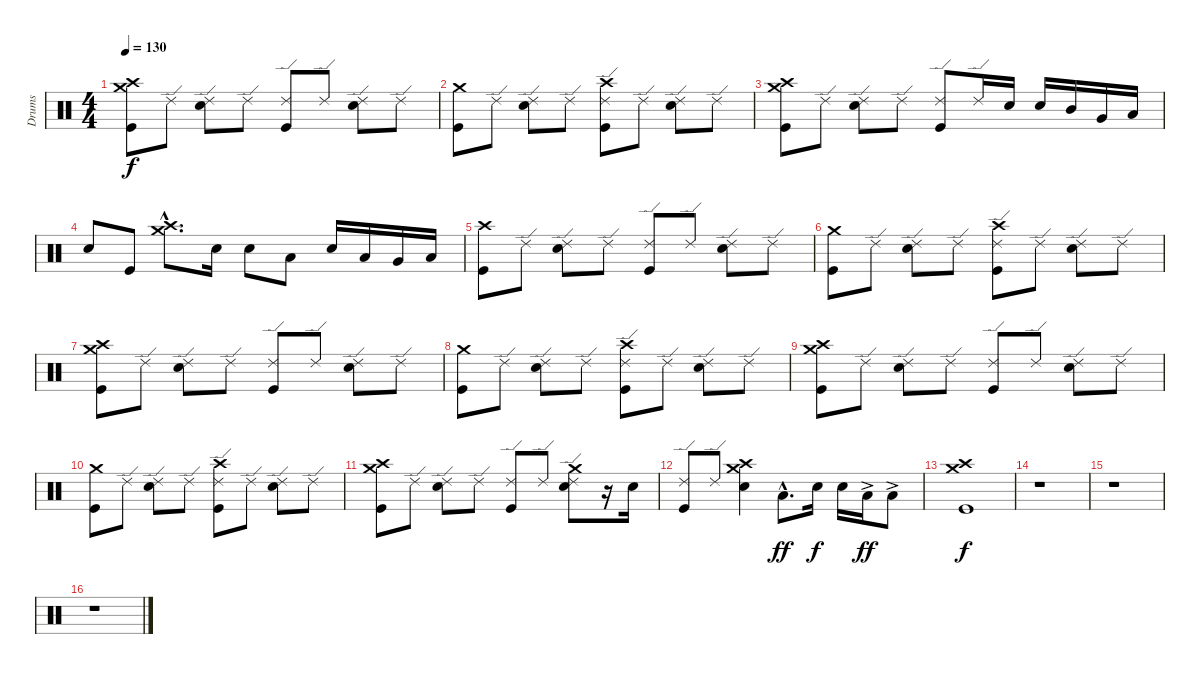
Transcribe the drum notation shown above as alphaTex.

\track ("Drums" "Drums") {instrument percussion}
\staff {score}
\articulation defaults
\ts (4 4)
\tempo 130
\clef neutral
\ks c
("Crash high (hit)" "Crash medium (hit)" "Kick (hit)").8{dy f} "Ride (edge) 2".8 ("Ride (edge) 2" "Snare (hit) 2").8 "Ride (edge) 2".8 ("Ride (edge) 2" "Kick (hit)").8 "Ride (edge) 2".8 ("Ride (edge) 2" "Snare (hit) 2").8 "Ride (edge) 2".8 |
("Crash medium (hit)" "Kick (hit)").8 "Ride (edge) 2".8 ("Ride (edge) 2" "Snare (hit) 2").8 "Ride (edge) 2".8 ("Crash high (hit)" "Ride (edge) 2" "Kick (hit)").8 "Ride (edge) 2".8 ("Ride (edge) 2" "Snare (hit) 2").8 "Ride (edge) 2".8 |
("Crash high (hit)" "Crash medium (hit)" "Kick (hit)").8 "Ride (edge) 2".8 ("Ride (edge) 2" "Snare (hit) 2").8 "Ride (edge) 2".8 ("Ride (edge) 2" "Kick (hit)").8 "Ride (edge) 2".16 "Snare (hit) 2".16 "Snare (hit) 2".16 "Mid Tom (hit)".16 "Very Low Tom (hit)".16 "Low Floor Tom (hit)".16 |
"Snare (hit) 2".8 "Kick (hit)".8 ("Crash high (hit)"{hac} "Crash medium (hit)"{hac}).8{d} "Snare (hit) 2".16 "Snare (hit) 2".8 "Low Tom (hit)".8 "Snare (hit) 2".16 "Low Tom (hit)".16 "Very Low Tom (hit)".16 "Low Tom (hit)".16 |
("Crash high (hit)" "Kick (hit)").8 "Ride (edge) 2".8 ("Ride (edge) 2" "Snare (hit) 2").8 "Ride (edge) 2".8 ("Ride (edge) 2" "Kick (hit)").8 "Ride (edge) 2".8 ("Ride (edge) 2" "Snare (hit) 2").8 "Ride (edge) 2".8 |
("Crash medium (hit)" "Kick (hit)").8 "Ride (edge) 2".8 ("Ride (edge) 2" "Snare (hit) 2").8 "Ride (edge) 2".8 ("Crash high (hit)" "Ride (edge) 2" "Kick (hit)").8 "Ride (edge) 2".8 ("Ride (edge) 2" "Snare (hit) 2").8 "Ride (edge) 2".8 |
("Crash high (hit)" "Crash medium (hit)" "Kick (hit)").8 "Ride (edge) 2".8 ("Ride (edge) 2" "Snare (hit) 2").8 "Ride (edge) 2".8 ("Ride (edge) 2" "Kick (hit)").8 "Ride (edge) 2".8 ("Ride (edge) 2" "Snare (hit) 2").8 "Ride (edge) 2".8 |
("Crash medium (hit)" "Kick (hit)").8 "Ride (edge) 2".8 ("Ride (edge) 2" "Snare (hit) 2").8 "Ride (edge) 2".8 ("Crash high (hit)" "Ride (edge) 2" "Kick (hit)").8 "Ride (edge) 2".8 ("Ride (edge) 2" "Snare (hit) 2").8 "Ride (edge) 2".8 |
("Crash high (hit)" "Crash medium (hit)" "Kick (hit)").8 "Ride (edge) 2".8 ("Ride (edge) 2" "Snare (hit) 2").8 "Ride (edge) 2".8 ("Ride (edge) 2" "Kick (hit)").8 "Ride (edge) 2".8 ("Ride (edge) 2" "Snare (hit) 2").8 "Ride (edge) 2".8 |
("Crash medium (hit)" "Kick (hit)").8 "Ride (edge) 2".8 ("Ride (edge) 2" "Snare (hit) 2").8 "Ride (edge) 2".8 ("Crash high (hit)" "Ride (edge) 2" "Kick (hit)").8 "Ride (edge) 2".8 ("Ride (edge) 2" "Snare (hit) 2").8 "Ride (edge) 2".8 |
("Crash high (hit)" "Crash medium (hit)" "Kick (hit)").8 "Ride (edge) 2".8 ("Ride (edge) 2" "Snare (hit) 2").8 "Ride (edge) 2".8 ("Ride (edge) 2" "Kick (hit)").8 "Ride (edge) 2".8 ("Crash medium (hit)" "Ride (edge) 2" "Snare (hit) 2").8 r.16 "Snare (hit) 2".16 |
("Ride (edge) 2" "Kick (hit)").8 "Ride (edge) 2".8 ("Crash high (hit)" "Crash medium (hit)" "Snare (hit) 2").4 "Low Floor Tom (hit)"{hac}.8{d dy ff} "Snare (hit) 2".16{dy f} "Snare (hit) 2".16 "Low Tom (hit)"{ac}.16{dy ff} "Low Floor Tom (hit)"{ac}.8 |
("Crash high (hit)" "Crash medium (hit)" "Kick (hit)").1{dy f} |
r.1 |
r.1 |
r.1
